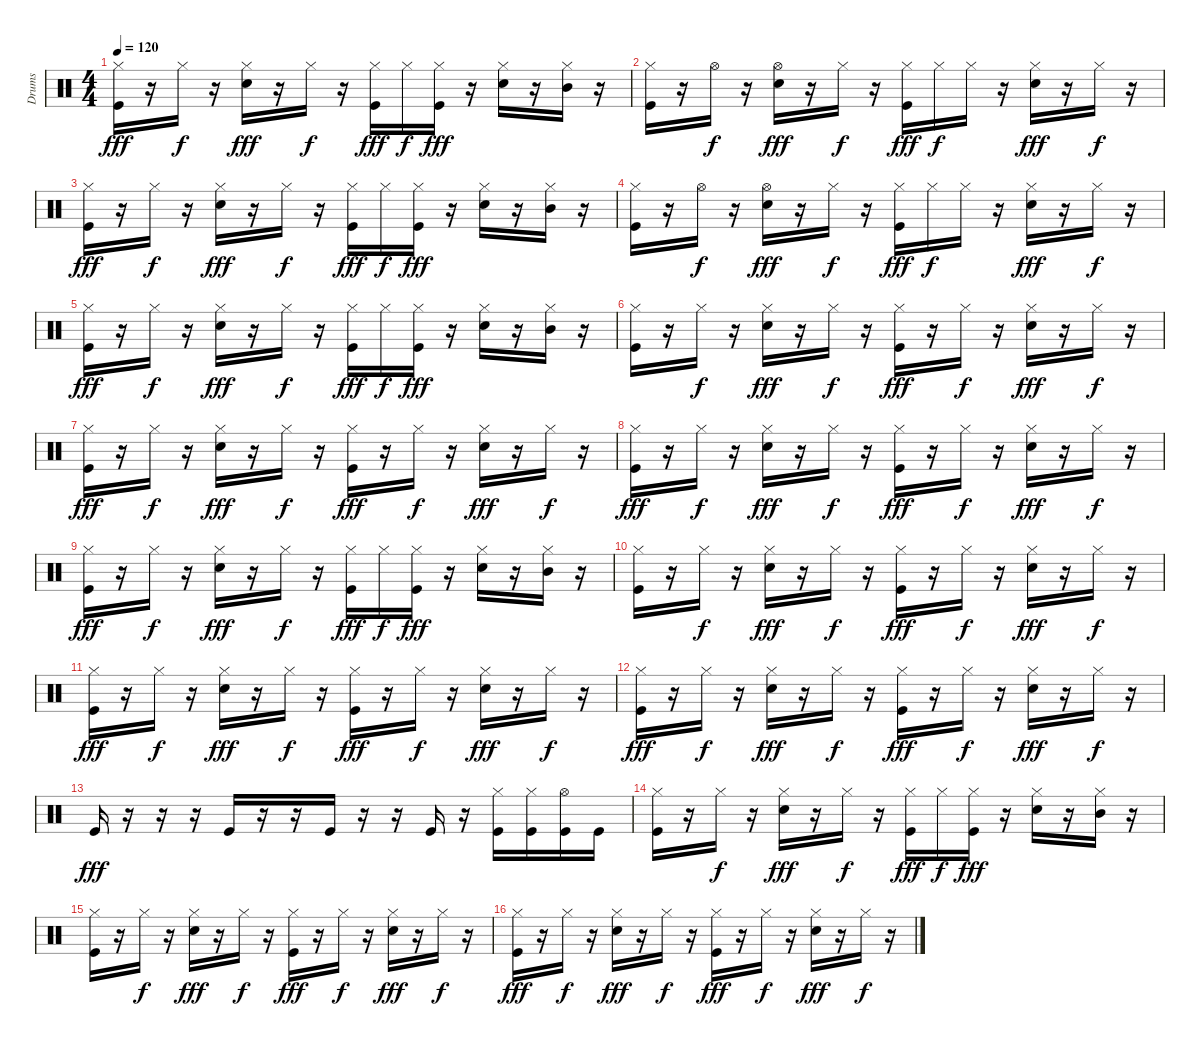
\track ("Drums" "Drums") {instrument percussion}
\staff {score}
\articulation defaults
\ts (4 4)
\tempo 120
\clef neutral
\ks c
("Hi-Hat (closed)" "Kick (hit)").16{dy fff} r.16 "Hi-Hat (closed)".16{dy f} r.16 ("Hi-Hat (closed)" "Electric Snare (hit)").16{dy fff} r.16 "Hi-Hat (closed)".16{dy f} r.16 ("Hi-Hat (closed)" "Kick (hit)").16{dy fff} "Hi-Hat (closed)".16{dy f} ("Hi-Hat (closed)" "Kick (hit)").16{dy fff} r.16 ("Hi-Hat (closed)" "Electric Snare (hit)").16 r.16 ("Hi-Hat (closed)" "Mid Tom (hit)").16 r.16 |
("Hi-Hat (closed)" "Kick (hit)").16 r.16 "Hi-Hat (open)".16{dy f} r.16 ("Hi-Hat (open)" "Electric Snare (hit)").16{dy fff} r.16 "Hi-Hat (closed)".16{dy f} r.16 ("Hi-Hat (closed)" "Kick (hit)").16{dy fff} "Hi-Hat (closed)".16{dy f} "Hi-Hat (closed)".16 r.16 ("Hi-Hat (closed)" "Electric Snare (hit)").16{dy fff} r.16 "Hi-Hat (closed)".16{dy f} r.16 |
("Hi-Hat (closed)" "Kick (hit)").16{dy fff} r.16 "Hi-Hat (closed)".16{dy f} r.16 ("Hi-Hat (closed)" "Electric Snare (hit)").16{dy fff} r.16 "Hi-Hat (closed)".16{dy f} r.16 ("Hi-Hat (closed)" "Kick (hit)").16{dy fff} "Hi-Hat (closed)".16{dy f} ("Hi-Hat (closed)" "Kick (hit)").16{dy fff} r.16 ("Hi-Hat (closed)" "Electric Snare (hit)").16 r.16 ("Hi-Hat (closed)" "Mid Tom (hit)").16 r.16 |
("Hi-Hat (closed)" "Kick (hit)").16 r.16 "Hi-Hat (open)".16{dy f} r.16 ("Hi-Hat (open)" "Electric Snare (hit)").16{dy fff} r.16 "Hi-Hat (closed)".16{dy f} r.16 ("Hi-Hat (closed)" "Kick (hit)").16{dy fff} "Hi-Hat (closed)".16{dy f} "Hi-Hat (closed)".16 r.16 ("Hi-Hat (closed)" "Electric Snare (hit)").16{dy fff} r.16 "Hi-Hat (closed)".16{dy f} r.16 |
("Hi-Hat (closed)" "Kick (hit)").16{dy fff} r.16 "Hi-Hat (closed)".16{dy f} r.16 ("Hi-Hat (closed)" "Electric Snare (hit)").16{dy fff} r.16 "Hi-Hat (closed)".16{dy f} r.16 ("Hi-Hat (closed)" "Kick (hit)").16{dy fff} "Hi-Hat (closed)".16{dy f} ("Hi-Hat (closed)" "Kick (hit)").16{dy fff} r.16 ("Hi-Hat (closed)" "Electric Snare (hit)").16 r.16 ("Hi-Hat (closed)" "Mid Tom (hit)").16 r.16 |
("Hi-Hat (closed)" "Kick (hit)").16 r.16 "Hi-Hat (closed)".16{dy f} r.16 ("Hi-Hat (closed)" "Electric Snare (hit)").16{dy fff} r.16 "Hi-Hat (closed)".16{dy f} r.16 ("Hi-Hat (closed)" "Kick (hit)").16{dy fff} r.16 "Hi-Hat (closed)".16{dy f} r.16 ("Hi-Hat (closed)" "Electric Snare (hit)").16{dy fff} r.16 "Hi-Hat (closed)".16{dy f} r.16 |
("Hi-Hat (closed)" "Kick (hit)").16{dy fff} r.16 "Hi-Hat (closed)".16{dy f} r.16 ("Hi-Hat (closed)" "Electric Snare (hit)").16{dy fff} r.16 "Hi-Hat (closed)".16{dy f} r.16 ("Hi-Hat (closed)" "Kick (hit)").16{dy fff} r.16 "Hi-Hat (closed)".16{dy f} r.16 ("Hi-Hat (closed)" "Electric Snare (hit)").16{dy fff} r.16 "Hi-Hat (closed)".16{dy f} r.16 |
("Hi-Hat (closed)" "Kick (hit)").16{dy fff} r.16 "Hi-Hat (closed)".16{dy f} r.16 ("Hi-Hat (closed)" "Electric Snare (hit)").16{dy fff} r.16 "Hi-Hat (closed)".16{dy f} r.16 ("Hi-Hat (closed)" "Kick (hit)").16{dy fff} r.16 "Hi-Hat (closed)".16{dy f} r.16 ("Hi-Hat (closed)" "Electric Snare (hit)").16{dy fff} r.16 "Hi-Hat (closed)".16{dy f} r.16 |
("Hi-Hat (closed)" "Kick (hit)").16{dy fff} r.16 "Hi-Hat (closed)".16{dy f} r.16 ("Hi-Hat (closed)" "Electric Snare (hit)").16{dy fff} r.16 "Hi-Hat (closed)".16{dy f} r.16 ("Hi-Hat (closed)" "Kick (hit)").16{dy fff} "Hi-Hat (closed)".16{dy f} ("Hi-Hat (closed)" "Kick (hit)").16{dy fff} r.16 ("Hi-Hat (closed)" "Electric Snare (hit)").16 r.16 ("Hi-Hat (closed)" "Mid Tom (hit)").16 r.16 |
("Hi-Hat (closed)" "Kick (hit)").16 r.16 "Hi-Hat (closed)".16{dy f} r.16 ("Hi-Hat (closed)" "Electric Snare (hit)").16{dy fff} r.16 "Hi-Hat (closed)".16{dy f} r.16 ("Hi-Hat (closed)" "Kick (hit)").16{dy fff} r.16 "Hi-Hat (closed)".16{dy f} r.16 ("Hi-Hat (closed)" "Electric Snare (hit)").16{dy fff} r.16 "Hi-Hat (closed)".16{dy f} r.16 |
("Hi-Hat (closed)" "Kick (hit)").16{dy fff} r.16 "Hi-Hat (closed)".16{dy f} r.16 ("Hi-Hat (closed)" "Electric Snare (hit)").16{dy fff} r.16 "Hi-Hat (closed)".16{dy f} r.16 ("Hi-Hat (closed)" "Kick (hit)").16{dy fff} r.16 "Hi-Hat (closed)".16{dy f} r.16 ("Hi-Hat (closed)" "Electric Snare (hit)").16{dy fff} r.16 "Hi-Hat (closed)".16{dy f} r.16 |
("Hi-Hat (closed)" "Kick (hit)").16{dy fff} r.16 "Hi-Hat (closed)".16{dy f} r.16 ("Hi-Hat (closed)" "Electric Snare (hit)").16{dy fff} r.16 "Hi-Hat (closed)".16{dy f} r.16 ("Hi-Hat (closed)" "Kick (hit)").16{dy fff} r.16 "Hi-Hat (closed)".16{dy f} r.16 ("Hi-Hat (closed)" "Electric Snare (hit)").16{dy fff} r.16 "Hi-Hat (closed)".16{dy f} r.16 |
"Kick (hit)".16{dy fff} r.16 r.16 r.16 "Kick (hit)".16 r.16 r.16 "Kick (hit)".16 r.16 r.16 "Kick (hit)".16 r.16 ("Hi-Hat (closed)" "Kick (hit)").16 ("Hi-Hat (closed)" "Kick (hit)").16 ("Hi-Hat (open)" "Kick (hit)").16 "Kick (hit)".16 |
("Hi-Hat (closed)" "Kick (hit)").16 r.16 "Hi-Hat (closed)".16{dy f} r.16 ("Hi-Hat (closed)" "Electric Snare (hit)").16{dy fff} r.16 "Hi-Hat (closed)".16{dy f} r.16 ("Hi-Hat (closed)" "Kick (hit)").16{dy fff} "Hi-Hat (closed)".16{dy f} ("Hi-Hat (closed)" "Kick (hit)").16{dy fff} r.16 ("Hi-Hat (closed)" "Electric Snare (hit)").16 r.16 ("Hi-Hat (closed)" "Mid Tom (hit)").16 r.16 |
("Hi-Hat (closed)" "Kick (hit)").16 r.16 "Hi-Hat (closed)".16{dy f} r.16 ("Hi-Hat (closed)" "Electric Snare (hit)").16{dy fff} r.16 "Hi-Hat (closed)".16{dy f} r.16 ("Hi-Hat (closed)" "Kick (hit)").16{dy fff} r.16 "Hi-Hat (closed)".16{dy f} r.16 ("Hi-Hat (closed)" "Electric Snare (hit)").16{dy fff} r.16 "Hi-Hat (closed)".16{dy f} r.16 |
("Hi-Hat (closed)" "Kick (hit)").16{dy fff} r.16 "Hi-Hat (closed)".16{dy f} r.16 ("Hi-Hat (closed)" "Electric Snare (hit)").16{dy fff} r.16 "Hi-Hat (closed)".16{dy f} r.16 ("Hi-Hat (closed)" "Kick (hit)").16{dy fff} r.16 "Hi-Hat (closed)".16{dy f} r.16 ("Hi-Hat (closed)" "Electric Snare (hit)").16{dy fff} r.16 "Hi-Hat (closed)".16{dy f} r.16
